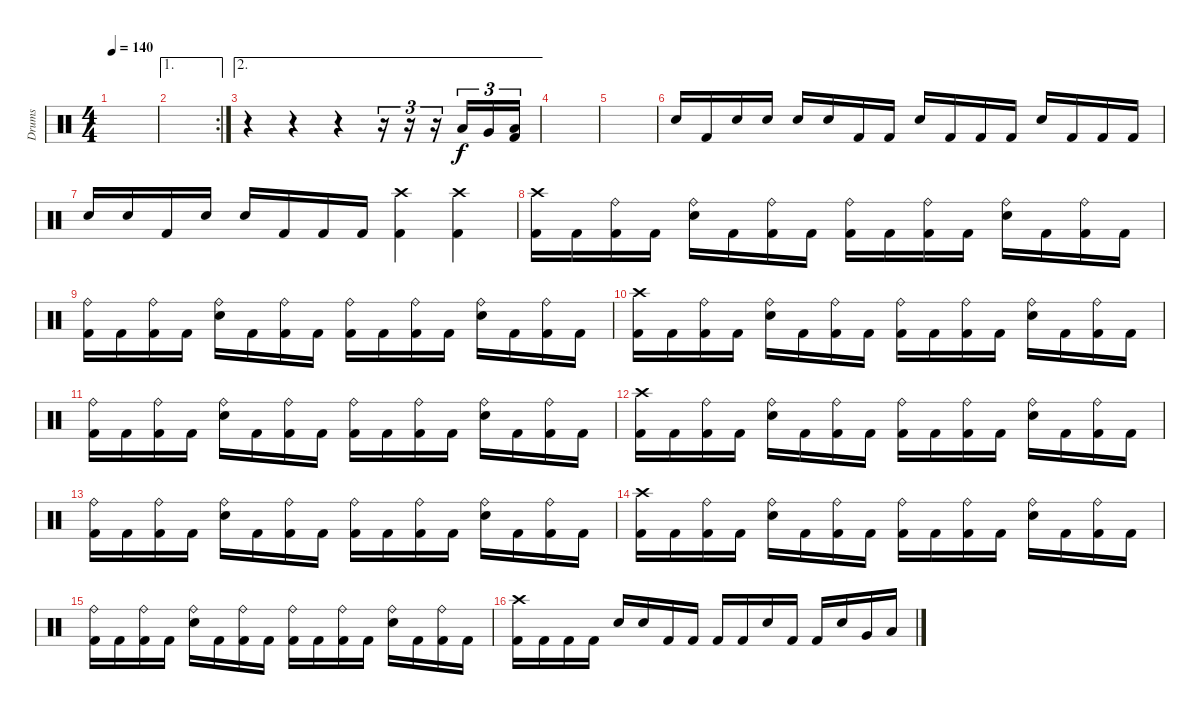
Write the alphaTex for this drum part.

\track ("Drums" "Drums") {instrument percussion}
\staff {score}
\articulation defaults
\ts (4 4)
\tempo 140
\clef neutral
\ks c
|
\ae 1
\rc 2
|
\ae 2
r.4 r.4 r.4 r.16{tu (3 2)} r.16{tu (3 2)} r.16{tu (3 2)} "Low Tom (hit)".16{tu (3 2)} "Very Low Tom (hit)".16{tu (3 2)} ("Low Floor Tom (hit)" "Kick (hit) 2").16{tu (3 2)} |
|
|
"Snare (hit) 2".16 "Kick (hit) 2".16 "Snare (hit) 2".16 "Snare (hit) 2".16 "Snare (hit) 2".16 "Snare (hit) 2".16 "Kick (hit) 2".16 "Kick (hit) 2".16 "Snare (hit) 2".16 "Kick (hit) 2".16 "Kick (hit) 2".16 "Kick (hit) 2".16 "Snare (hit) 2".16 "Kick (hit) 2".16 "Kick (hit) 2".16 "Kick (hit) 2".16 |
"Snare (hit) 2".16 "Snare (hit) 2".16 "Kick (hit) 2".16 "Snare (hit) 2".16 "Snare (hit) 2".16 "Kick (hit) 2".16 "Kick (hit) 2".16 "Kick (hit) 2".16 ("Crash high (hit)" "Kick (hit) 2").4 ("Crash high (hit)" "Kick (hit) 2").4 |
("Crash high (hit)" "Kick (hit) 2").16 "Kick (hit) 2".16 ("Ride (bell)" "Kick (hit) 2").16 "Kick (hit) 2".16 ("Ride (bell)" "Snare (hit) 2").16 "Kick (hit) 2".16 ("Ride (bell)" "Kick (hit) 2").16 "Kick (hit) 2".16 ("Ride (bell)" "Kick (hit) 2").16 "Kick (hit) 2".16 ("Ride (bell)" "Kick (hit) 2").16 "Kick (hit) 2".16 ("Ride (bell)" "Snare (hit) 2").16 "Kick (hit) 2".16 ("Ride (bell)" "Kick (hit) 2").16 "Kick (hit) 2".16 |
("Ride (bell)" "Kick (hit) 2").16 "Kick (hit) 2".16 ("Ride (bell)" "Kick (hit) 2").16 "Kick (hit) 2".16 ("Ride (bell)" "Snare (hit) 2").16 "Kick (hit) 2".16 ("Ride (bell)" "Kick (hit) 2").16 "Kick (hit) 2".16 ("Ride (bell)" "Kick (hit) 2").16 "Kick (hit) 2".16 ("Ride (bell)" "Kick (hit) 2").16 "Kick (hit) 2".16 ("Ride (bell)" "Snare (hit) 2").16 "Kick (hit) 2".16 ("Ride (bell)" "Kick (hit) 2").16 "Kick (hit) 2".16 |
("Crash high (hit)" "Kick (hit) 2").16 "Kick (hit) 2".16 ("Ride (bell)" "Kick (hit) 2").16 "Kick (hit) 2".16 ("Ride (bell)" "Snare (hit) 2").16 "Kick (hit) 2".16 ("Ride (bell)" "Kick (hit) 2").16 "Kick (hit) 2".16 ("Ride (bell)" "Kick (hit) 2").16 "Kick (hit) 2".16 ("Ride (bell)" "Kick (hit) 2").16 "Kick (hit) 2".16 ("Ride (bell)" "Snare (hit) 2").16 "Kick (hit) 2".16 ("Ride (bell)" "Kick (hit) 2").16 "Kick (hit) 2".16 |
("Ride (bell)" "Kick (hit) 2").16 "Kick (hit) 2".16 ("Ride (bell)" "Kick (hit) 2").16 "Kick (hit) 2".16 ("Ride (bell)" "Snare (hit) 2").16 "Kick (hit) 2".16 ("Ride (bell)" "Kick (hit) 2").16 "Kick (hit) 2".16 ("Ride (bell)" "Kick (hit) 2").16 "Kick (hit) 2".16 ("Ride (bell)" "Kick (hit) 2").16 "Kick (hit) 2".16 ("Ride (bell)" "Snare (hit) 2").16 "Kick (hit) 2".16 ("Ride (bell)" "Kick (hit) 2").16 "Kick (hit) 2".16 |
("Crash high (hit)" "Kick (hit) 2").16 "Kick (hit) 2".16 ("Ride (bell)" "Kick (hit) 2").16 "Kick (hit) 2".16 ("Ride (bell)" "Snare (hit) 2").16 "Kick (hit) 2".16 ("Ride (bell)" "Kick (hit) 2").16 "Kick (hit) 2".16 ("Ride (bell)" "Kick (hit) 2").16 "Kick (hit) 2".16 ("Ride (bell)" "Kick (hit) 2").16 "Kick (hit) 2".16 ("Ride (bell)" "Snare (hit) 2").16 "Kick (hit) 2".16 ("Ride (bell)" "Kick (hit) 2").16 "Kick (hit) 2".16 |
("Ride (bell)" "Kick (hit) 2").16 "Kick (hit) 2".16 ("Ride (bell)" "Kick (hit) 2").16 "Kick (hit) 2".16 ("Ride (bell)" "Snare (hit) 2").16 "Kick (hit) 2".16 ("Ride (bell)" "Kick (hit) 2").16 "Kick (hit) 2".16 ("Ride (bell)" "Kick (hit) 2").16 "Kick (hit) 2".16 ("Ride (bell)" "Kick (hit) 2").16 "Kick (hit) 2".16 ("Ride (bell)" "Snare (hit) 2").16 "Kick (hit) 2".16 ("Ride (bell)" "Kick (hit) 2").16 "Kick (hit) 2".16 |
("Crash high (hit)" "Kick (hit) 2").16 "Kick (hit) 2".16 ("Ride (bell)" "Kick (hit) 2").16 "Kick (hit) 2".16 ("Ride (bell)" "Snare (hit) 2").16 "Kick (hit) 2".16 ("Ride (bell)" "Kick (hit) 2").16 "Kick (hit) 2".16 ("Ride (bell)" "Kick (hit) 2").16 "Kick (hit) 2".16 ("Ride (bell)" "Kick (hit) 2").16 "Kick (hit) 2".16 ("Ride (bell)" "Snare (hit) 2").16 "Kick (hit) 2".16 ("Ride (bell)" "Kick (hit) 2").16 "Kick (hit) 2".16 |
("Ride (bell)" "Kick (hit) 2").16 "Kick (hit) 2".16 ("Ride (bell)" "Kick (hit) 2").16 "Kick (hit) 2".16 ("Ride (bell)" "Snare (hit) 2").16 "Kick (hit) 2".16 ("Ride (bell)" "Kick (hit) 2").16 "Kick (hit) 2".16 ("Ride (bell)" "Kick (hit) 2").16 "Kick (hit) 2".16 ("Ride (bell)" "Kick (hit) 2").16 "Kick (hit) 2".16 ("Ride (bell)" "Snare (hit) 2").16 "Kick (hit) 2".16 ("Ride (bell)" "Kick (hit) 2").16 "Kick (hit) 2".16 |
("Crash high (hit)" "Kick (hit) 2").16 "Kick (hit) 2".16 "Kick (hit) 2".16 "Kick (hit) 2".16 "Snare (hit) 2".16 "Snare (hit) 2".16 "Kick (hit) 2".16 "Kick (hit) 2".16 "Kick (hit) 2".16 "Kick (hit) 2".16 "Snare (hit) 2".16 "Kick (hit) 2".16 "Kick (hit) 2".16 "Snare (hit) 2".16 "Very Low Tom (hit)".16 "Low Floor Tom (hit)".16
